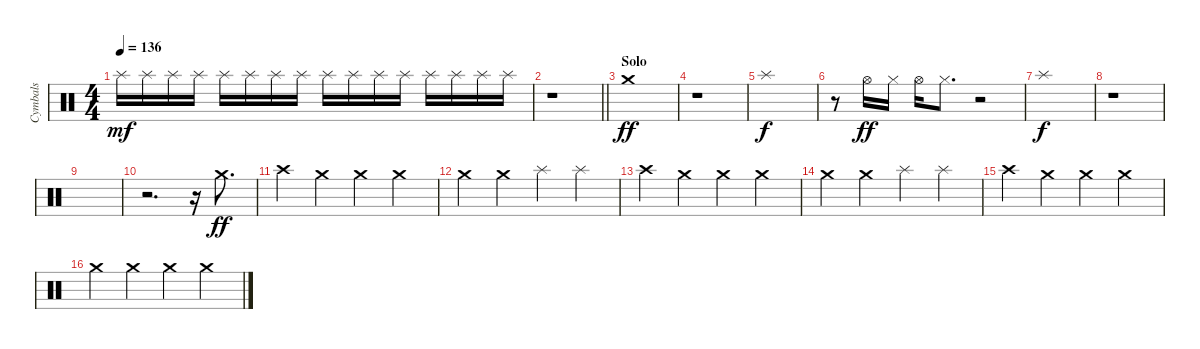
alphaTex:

\track ("Cymbals" "Cymbals") {instrument percussion}
\staff {score}
\articulation defaults
\ts (4 4)
\tempo 136
\clef neutral
\ks c "Splash (hit)".16{dy mf} "Splash (hit)".16 "Splash (hit)".16 "Splash (hit)".16 "Splash (hit)".16 "Splash (hit)".16 "Splash (hit)".16 "Splash (hit)".16 "Splash (hit)".16 "Splash (hit)".16 "Splash (hit)".16 "Splash (hit)".16 "Splash (hit)".16 "Splash (hit)".16 "Splash (hit)".16 "Splash (hit)".16
|
\barLineRight lightlight
r.1 |
\section ("" "Solo")
"Crash medium (hit)".1{dy ff} |
r.1 |
"Splash (hit)".1{dy f} |
r.8 "Hi-Hat (open)".16{dy ff} "Hi-Hat (closed)".16 "Hi-Hat (open)".16 "Hi-Hat (closed)".8{d} r.2 |
"Splash (hit)".1{dy f} |
r.1 |
|
r.2{d} r.16 "Crash medium (hit)".8{d dy ff} |
"Crash high (hit)".4 "Crash medium (hit)".4 "Crash medium (hit)".4 "Crash medium (hit)".4 |
"Crash medium (hit)".4 "Crash medium (hit)".4 "Splash (hit)".4 "Splash (hit)".4 |
"Crash high (hit)".4 "Crash medium (hit)".4 "Crash medium (hit)".4 "Crash medium (hit)".4 |
"Crash medium (hit)".4 "Crash medium (hit)".4 "Splash (hit)".4 "Splash (hit)".4 |
"Crash high (hit)".4 "Crash medium (hit)".4 "Crash medium (hit)".4 "Crash medium (hit)".4 |
"Crash medium (hit)".4 "Crash medium (hit)".4 "Crash medium (hit)".4 "Crash medium (hit)".4
